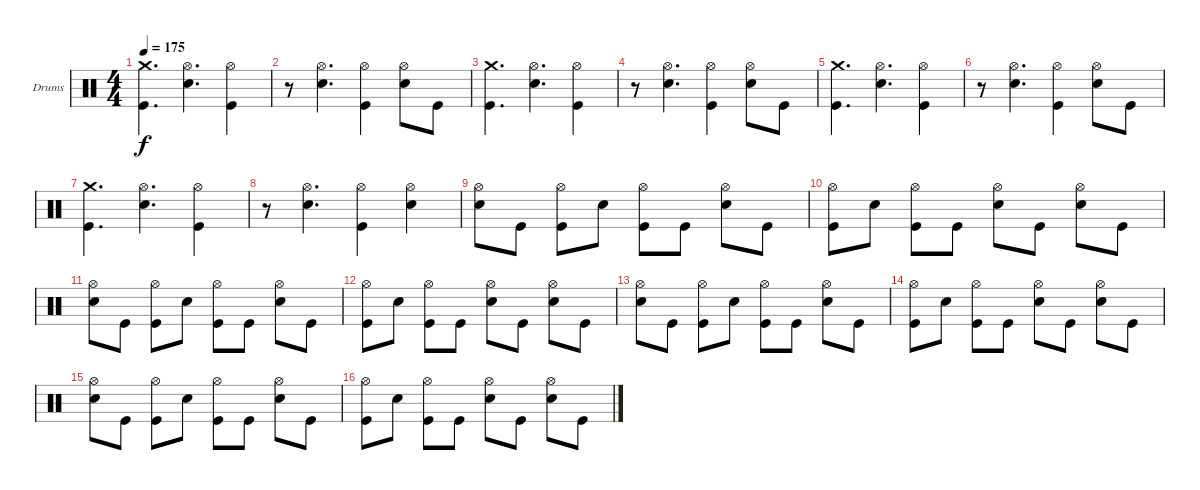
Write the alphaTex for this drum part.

\defaultSystemsLayout 4
\bracketExtendMode groupsimilarinstruments
\firstSystemTrackNameOrientation horizontal
\otherSystemsTrackNameOrientation horizontal
\track ("Drumkit" "Drums") {instrument percussion}
\staff {score}
\articulation defaults
\ts (4 4)
\tempo 175
\clef neutral
\ks c
("Crash medium (hit)" "Kick (hit)").4{d dy f} ("Hi-Hat (open)" "Snare (hit) 2").4{d} ("Hi-Hat (open)" "Kick (hit)").4 |
r.8 ("Hi-Hat (open)" "Snare (hit) 2").4{d} ("Hi-Hat (open)" "Kick (hit)").4 ("Hi-Hat (open)" "Snare (hit) 2").8 "Kick (hit)".8 |
("Crash medium (hit)" "Kick (hit)").4{d} ("Hi-Hat (open)" "Snare (hit) 2").4{d} ("Hi-Hat (open)" "Kick (hit)").4 |
r.8 ("Hi-Hat (open)" "Snare (hit) 2").4{d} ("Hi-Hat (open)" "Kick (hit)").4 ("Hi-Hat (open)" "Snare (hit) 2").8 "Kick (hit)".8 |
("Crash medium (hit)" "Kick (hit)").4{d} ("Hi-Hat (open)" "Snare (hit) 2").4{d} ("Hi-Hat (open)" "Kick (hit)").4 |
r.8 ("Hi-Hat (open)" "Snare (hit) 2").4{d} ("Hi-Hat (open)" "Kick (hit)").4 ("Hi-Hat (open)" "Snare (hit) 2").8 "Kick (hit)".8 |
("Crash medium (hit)" "Kick (hit)").4{d} ("Hi-Hat (open)" "Snare (hit) 2").4{d} ("Hi-Hat (open)" "Kick (hit)").4 |
r.8 ("Hi-Hat (open)" "Snare (hit) 2").4{d} ("Hi-Hat (open)" "Kick (hit)").4 ("Hi-Hat (open)" "Snare (hit) 2").4 |
("Snare (hit) 2" "Hi-Hat (open)").8 "Kick (hit)".8 ("Kick (hit)" "Hi-Hat (open)").8 "Snare (hit) 2".8 ("Kick (hit)" "Hi-Hat (open)").8 "Kick (hit)".8 ("Snare (hit) 2" "Hi-Hat (open)").8 "Kick (hit)".8 |
("Kick (hit)" "Hi-Hat (open)").8 "Snare (hit) 2".8 ("Kick (hit)" "Hi-Hat (open)").8 "Kick (hit)".8 ("Snare (hit) 2" "Hi-Hat (open)").8 "Kick (hit)".8 ("Snare (hit) 2" "Hi-Hat (open)").8 "Kick (hit)".8 |
("Snare (hit) 2" "Hi-Hat (open)").8 "Kick (hit)".8 ("Kick (hit)" "Hi-Hat (open)").8 "Snare (hit) 2".8 ("Kick (hit)" "Hi-Hat (open)").8 "Kick (hit)".8 ("Snare (hit) 2" "Hi-Hat (open)").8 "Kick (hit)".8 |
("Kick (hit)" "Hi-Hat (open)").8 "Snare (hit) 2".8 ("Kick (hit)" "Hi-Hat (open)").8 "Kick (hit)".8 ("Snare (hit) 2" "Hi-Hat (open)").8 "Kick (hit)".8 ("Snare (hit) 2" "Hi-Hat (open)").8 "Kick (hit)".8 |
("Snare (hit) 2" "Hi-Hat (open)").8 "Kick (hit)".8 ("Kick (hit)" "Hi-Hat (open)").8 "Snare (hit) 2".8 ("Kick (hit)" "Hi-Hat (open)").8 "Kick (hit)".8 ("Snare (hit) 2" "Hi-Hat (open)").8 "Kick (hit)".8 |
("Kick (hit)" "Hi-Hat (open)").8 "Snare (hit) 2".8 ("Kick (hit)" "Hi-Hat (open)").8 "Kick (hit)".8 ("Snare (hit) 2" "Hi-Hat (open)").8 "Kick (hit)".8 ("Snare (hit) 2" "Hi-Hat (open)").8 "Kick (hit)".8 |
("Snare (hit) 2" "Hi-Hat (open)").8 "Kick (hit)".8 ("Kick (hit)" "Hi-Hat (open)").8 "Snare (hit) 2".8 ("Kick (hit)" "Hi-Hat (open)").8 "Kick (hit)".8 ("Snare (hit) 2" "Hi-Hat (open)").8 "Kick (hit)".8 |
("Kick (hit)" "Hi-Hat (open)").8 "Snare (hit) 2".8 ("Kick (hit)" "Hi-Hat (open)").8 "Kick (hit)".8 ("Snare (hit) 2" "Hi-Hat (open)").8 "Kick (hit)".8 ("Snare (hit) 2" "Hi-Hat (open)").8 "Kick (hit)".8
